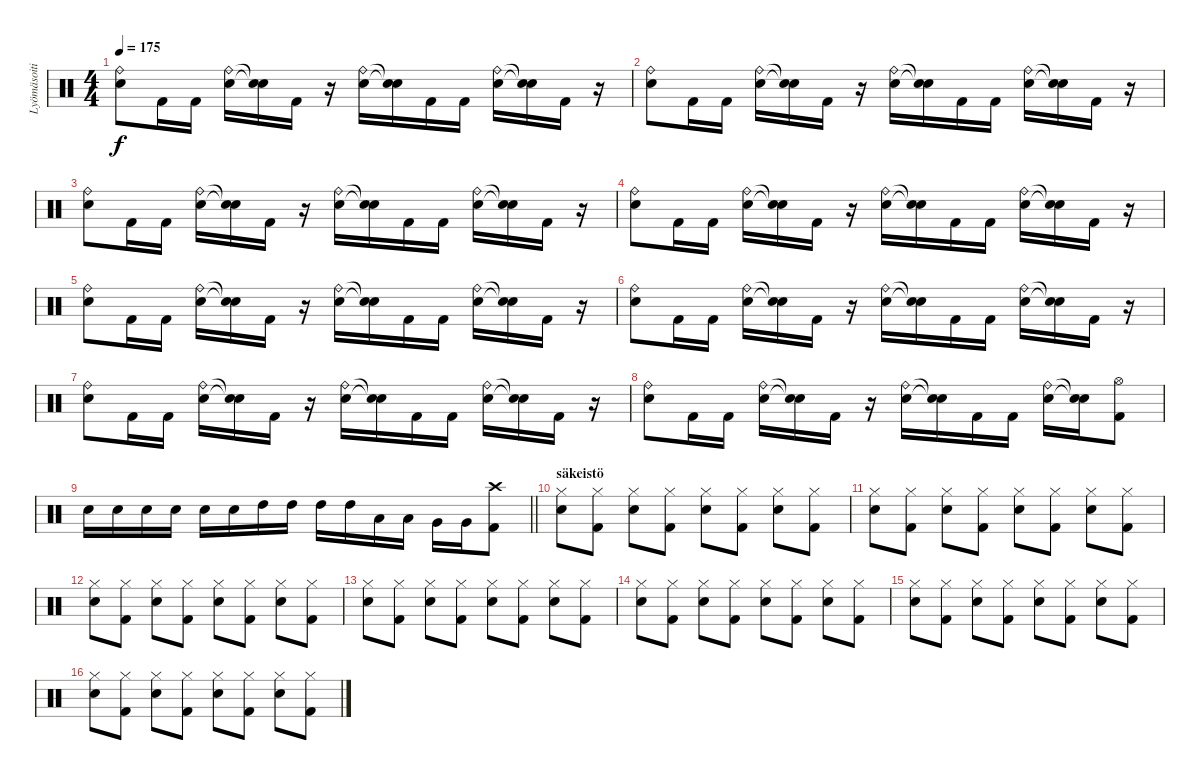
\track ("Lyömäsoitin" "Lyömäsoiti") {instrument percussion}
\staff {score}
\articulation defaults
\ts (4 4)
\tempo 175
\clef neutral
\ks c
("Electric Snare (hit)" "Ride (bell)").8{dy f} "Kick (hit) 2".16 "Kick (hit) 2".16 ("Electric Snare (hit)" "Ride (bell)").16 ("Snare (hit)"{t} "Snare (hit)"{t}).16 "Kick (hit) 2".16 r.16 ("Electric Snare (hit)" "Ride (bell)").16 ("Snare (hit)"{t} "Snare (hit)"{t}).16 "Kick (hit) 2".16 "Kick (hit) 2".16 ("Electric Snare (hit)" "Ride (bell)").16 ("Snare (hit)"{t} "Snare (hit)"{t}).16 "Kick (hit) 2".16 r.16 |
("Electric Snare (hit)" "Ride (bell)").8 "Kick (hit) 2".16 "Kick (hit) 2".16 ("Electric Snare (hit)" "Ride (bell)").16 ("Snare (hit)"{t} "Snare (hit)"{t}).16 "Kick (hit) 2".16 r.16 ("Electric Snare (hit)" "Ride (bell)").16 ("Snare (hit)"{t} "Snare (hit)"{t}).16 "Kick (hit) 2".16 "Kick (hit) 2".16 ("Electric Snare (hit)" "Ride (bell)").16 ("Snare (hit)"{t} "Snare (hit)"{t}).16 "Kick (hit) 2".16 r.16 |
("Electric Snare (hit)" "Ride (bell)").8 "Kick (hit) 2".16 "Kick (hit) 2".16 ("Electric Snare (hit)" "Ride (bell)").16 ("Snare (hit)"{t} "Snare (hit)"{t}).16 "Kick (hit) 2".16 r.16 ("Electric Snare (hit)" "Ride (bell)").16 ("Snare (hit)"{t} "Snare (hit)"{t}).16 "Kick (hit) 2".16 "Kick (hit) 2".16 ("Electric Snare (hit)" "Ride (bell)").16 ("Snare (hit)"{t} "Snare (hit)"{t}).16 "Kick (hit) 2".16 r.16 |
("Electric Snare (hit)" "Ride (bell)").8 "Kick (hit) 2".16 "Kick (hit) 2".16 ("Electric Snare (hit)" "Ride (bell)").16 ("Snare (hit)"{t} "Snare (hit)"{t}).16 "Kick (hit) 2".16 r.16 ("Electric Snare (hit)" "Ride (bell)").16 ("Snare (hit)"{t} "Snare (hit)"{t}).16 "Kick (hit) 2".16 "Kick (hit) 2".16 ("Electric Snare (hit)" "Ride (bell)").16 ("Snare (hit)"{t} "Snare (hit)"{t}).16 "Kick (hit) 2".16 r.16 |
("Electric Snare (hit)" "Ride (bell)").8 "Kick (hit) 2".16 "Kick (hit) 2".16 ("Electric Snare (hit)" "Ride (bell)").16 ("Snare (hit)"{t} "Snare (hit)"{t}).16 "Kick (hit) 2".16 r.16 ("Electric Snare (hit)" "Ride (bell)").16 ("Snare (hit)"{t} "Snare (hit)"{t}).16 "Kick (hit) 2".16 "Kick (hit) 2".16 ("Electric Snare (hit)" "Ride (bell)").16 ("Snare (hit)"{t} "Snare (hit)"{t}).16 "Kick (hit) 2".16 r.16 |
("Electric Snare (hit)" "Ride (bell)").8 "Kick (hit) 2".16 "Kick (hit) 2".16 ("Electric Snare (hit)" "Ride (bell)").16 ("Snare (hit)"{t} "Snare (hit)"{t}).16 "Kick (hit) 2".16 r.16 ("Electric Snare (hit)" "Ride (bell)").16 ("Snare (hit)"{t} "Snare (hit)"{t}).16 "Kick (hit) 2".16 "Kick (hit) 2".16 ("Electric Snare (hit)" "Ride (bell)").16 ("Snare (hit)"{t} "Snare (hit)"{t}).16 "Kick (hit) 2".16 r.16 |
("Electric Snare (hit)" "Ride (bell)").8 "Kick (hit) 2".16 "Kick (hit) 2".16 ("Electric Snare (hit)" "Ride (bell)").16 ("Snare (hit)"{t} "Snare (hit)"{t}).16 "Kick (hit) 2".16 r.16 ("Electric Snare (hit)" "Ride (bell)").16 ("Snare (hit)"{t} "Snare (hit)"{t}).16 "Kick (hit) 2".16 "Kick (hit) 2".16 ("Electric Snare (hit)" "Ride (bell)").16 ("Snare (hit)"{t} "Snare (hit)"{t}).16 "Kick (hit) 2".16 r.16 |
("Electric Snare (hit)" "Ride (bell)").8 "Kick (hit) 2".16 "Kick (hit) 2".16 ("Electric Snare (hit)" "Ride (bell)").16 ("Snare (hit)"{t} "Snare (hit)"{t}).16 "Kick (hit) 2".16 r.16 ("Electric Snare (hit)" "Ride (bell)").16 ("Snare (hit)"{t} "Snare (hit)"{t}).16 "Kick (hit) 2".16 "Kick (hit) 2".16 ("Electric Snare (hit)" "Ride (bell)").16 ("Snare (hit)"{t} "Snare (hit)"{t}).16 ("Hi-Hat (open)" "Kick (hit) 2").8 |
\barLineRight lightlight "Electric Snare (hit)".16 "Electric Snare (hit)".16 "Electric Snare (hit)".16 "Electric Snare (hit)".16 "Electric Snare (hit)".16 "Electric Snare (hit)".16 "High Tom (hit)".16 "High Tom (hit)".16 "High Tom (hit)".16 "High Tom (hit)".16 "Low Tom (hit)".16 "Low Tom (hit)".16 "Very Low Tom (hit)".16 "Very Low Tom (hit)".16
("Crash high (hit)" "Kick (hit) 2").8 |
\section ("" "säkeistö")
("Hi-Hat (closed)" "Electric Snare (hit)").8 ("Hi-Hat (closed)" "Kick (hit) 2").8 ("Hi-Hat (closed)" "Electric Snare (hit)").8 ("Hi-Hat (closed)" "Kick (hit) 2").8 ("Hi-Hat (closed)" "Electric Snare (hit)").8 ("Hi-Hat (closed)" "Kick (hit) 2").8 ("Hi-Hat (closed)" "Electric Snare (hit)").8 ("Hi-Hat (closed)" "Kick (hit) 2").8 |
("Hi-Hat (closed)" "Electric Snare (hit)").8 ("Hi-Hat (closed)" "Kick (hit) 2").8 ("Hi-Hat (closed)" "Electric Snare (hit)").8 ("Hi-Hat (closed)" "Kick (hit) 2").8 ("Hi-Hat (closed)" "Electric Snare (hit)").8 ("Hi-Hat (closed)" "Kick (hit) 2").8 ("Hi-Hat (closed)" "Electric Snare (hit)").8 ("Hi-Hat (closed)" "Kick (hit) 2").8 |
("Hi-Hat (closed)" "Electric Snare (hit)").8 ("Hi-Hat (closed)" "Kick (hit) 2").8 ("Hi-Hat (closed)" "Electric Snare (hit)").8 ("Hi-Hat (closed)" "Kick (hit) 2").8 ("Hi-Hat (closed)" "Electric Snare (hit)").8 ("Hi-Hat (closed)" "Kick (hit) 2").8 ("Hi-Hat (closed)" "Electric Snare (hit)").8 ("Hi-Hat (closed)" "Kick (hit) 2").8 |
("Hi-Hat (closed)" "Electric Snare (hit)").8 ("Hi-Hat (closed)" "Kick (hit) 2").8 ("Hi-Hat (closed)" "Electric Snare (hit)").8 ("Hi-Hat (closed)" "Kick (hit) 2").8 ("Hi-Hat (closed)" "Electric Snare (hit)").8 ("Hi-Hat (closed)" "Kick (hit) 2").8 ("Hi-Hat (closed)" "Electric Snare (hit)").8 ("Hi-Hat (closed)" "Kick (hit) 2").8 |
("Hi-Hat (closed)" "Electric Snare (hit)").8 ("Hi-Hat (closed)" "Kick (hit) 2").8 ("Hi-Hat (closed)" "Electric Snare (hit)").8 ("Hi-Hat (closed)" "Kick (hit) 2").8 ("Hi-Hat (closed)" "Electric Snare (hit)").8 ("Hi-Hat (closed)" "Kick (hit) 2").8 ("Hi-Hat (closed)" "Electric Snare (hit)").8 ("Hi-Hat (closed)" "Kick (hit) 2").8 |
("Hi-Hat (closed)" "Electric Snare (hit)").8 ("Hi-Hat (closed)" "Kick (hit) 2").8 ("Hi-Hat (closed)" "Electric Snare (hit)").8 ("Hi-Hat (closed)" "Kick (hit) 2").8 ("Hi-Hat (closed)" "Electric Snare (hit)").8 ("Hi-Hat (closed)" "Kick (hit) 2").8 ("Hi-Hat (closed)" "Electric Snare (hit)").8 ("Hi-Hat (closed)" "Kick (hit) 2").8 |
("Hi-Hat (closed)" "Electric Snare (hit)").8 ("Hi-Hat (closed)" "Kick (hit) 2").8 ("Hi-Hat (closed)" "Electric Snare (hit)").8 ("Hi-Hat (closed)" "Kick (hit) 2").8 ("Hi-Hat (closed)" "Electric Snare (hit)").8 ("Hi-Hat (closed)" "Kick (hit) 2").8 ("Hi-Hat (closed)" "Electric Snare (hit)").8 ("Hi-Hat (closed)" "Kick (hit) 2").8
